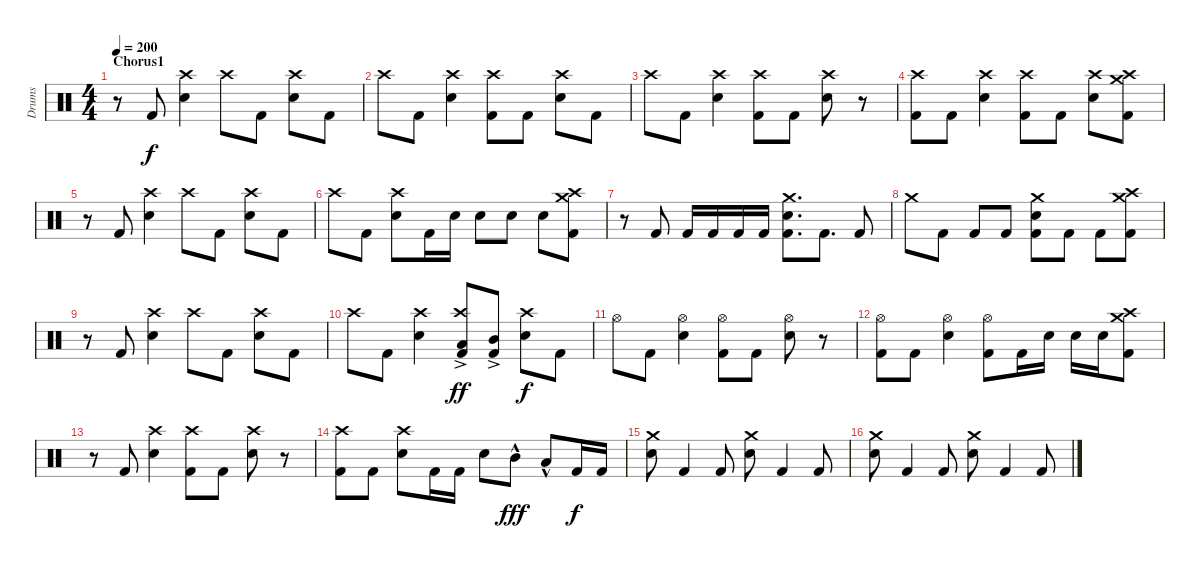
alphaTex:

\track ("Drums" "Drums") {instrument percussion}
\staff {score}
\articulation defaults
\ts (4 4)
\section ("" "Chorus1")
\tempo 200
\clef neutral
\ks c
r.8{dy f} "Kick (hit) 2".8 ("Crash high (hit)" "Electric Snare (hit)").4 "Crash high (hit)".8 "Kick (hit) 2".8 ("Crash high (hit)" "Electric Snare (hit)").8 "Kick (hit) 2".8 |
"Crash high (hit)".8 "Kick (hit) 2".8 ("Crash high (hit)" "Electric Snare (hit)").4 ("Crash high (hit)" "Kick (hit) 2").8 "Kick (hit) 2".8 ("Crash high (hit)" "Electric Snare (hit)").8 "Kick (hit) 2".8 |
"Crash high (hit)".8 "Kick (hit) 2".8 ("Crash high (hit)" "Electric Snare (hit)").4 ("Crash high (hit)" "Kick (hit) 2").8 "Kick (hit) 2".8 ("Crash high (hit)" "Electric Snare (hit)").8 r.8 |
("Crash high (hit)" "Kick (hit) 2").8 "Kick (hit) 2".8 ("Crash high (hit)" "Electric Snare (hit)").4 ("Crash high (hit)" "Kick (hit) 2").8 "Kick (hit) 2".8 ("Crash high (hit)" "Electric Snare (hit)").8 ("Crash high (hit)" "Crash medium (hit)" "Kick (hit) 2").8 |
r.8 "Kick (hit) 2".8 ("Crash high (hit)" "Electric Snare (hit)").4 "Crash high (hit)".8 "Kick (hit) 2".8 ("Crash high (hit)" "Electric Snare (hit)").8 "Kick (hit) 2".8 |
"Crash high (hit)".8 "Kick (hit) 2".8 ("Crash high (hit)" "Electric Snare (hit)").8 "Kick (hit) 2".16 "Electric Snare (hit)".16 "Electric Snare (hit)".8 "Electric Snare (hit)".8 "Electric Snare (hit)".8 ("Crash high (hit)" "Crash medium (hit)" "Kick (hit) 2").8 |
r.8 "Kick (hit) 2".8 "Kick (hit) 2".16 "Kick (hit) 2".16 "Kick (hit) 2".16 "Kick (hit) 2".16 ("Crash medium (hit)" "Electric Snare (hit)" "Kick (hit) 2").8{d} "Kick (hit) 2".8{d} "Kick (hit) 2".8 |
"Crash medium (hit)".8 "Kick (hit) 2".8 "Kick (hit) 2".8 "Kick (hit) 2".8 ("Crash medium (hit)" "Electric Snare (hit)" "Kick (hit) 2").8 "Kick (hit) 2".8 "Kick (hit) 2".8 ("Crash medium (hit)" "Crash high (hit)" "Kick (hit) 2").8 |
r.8 "Kick (hit) 2".8 ("Crash high (hit)" "Electric Snare (hit)").4 "Crash high (hit)".8 "Kick (hit) 2".8 ("Crash high (hit)" "Electric Snare (hit)").8 "Kick (hit) 2".8 |
"Crash high (hit)".8 "Kick (hit) 2".8 ("Crash high (hit)" "Electric Snare (hit)").4 ("Crash high (hit)" "Low Tom (hit)"{ac} "Kick (hit) 2").8{dy ff} ("Mid Tom (hit)"{ac} "Kick (hit) 2").8 ("Crash high (hit)" "Electric Snare (hit)").8{dy f} "Kick (hit) 2".8 |
"Hi-Hat (open)".8 "Kick (hit) 2".8 ("Hi-Hat (open)" "Electric Snare (hit)").4 ("Hi-Hat (open)" "Kick (hit) 2").8 "Kick (hit) 2".8 ("Hi-Hat (open)" "Electric Snare (hit)").8 r.8 |
("Hi-Hat (open)" "Kick (hit) 2").8 "Kick (hit) 2".8 ("Hi-Hat (open)" "Electric Snare (hit)").4 ("Hi-Hat (open)" "Kick (hit) 2").8 "Kick (hit) 2".16 "Electric Snare (hit)".16 "Electric Snare (hit)".16 "Electric Snare (hit)".16 ("Crash medium (hit)" "Crash high (hit)" "Kick (hit) 2").8 |
r.8 "Kick (hit) 2".8 ("Crash high (hit)" "Electric Snare (hit)").4 ("Crash high (hit)" "Kick (hit) 2").8 "Kick (hit) 2".8 ("Crash high (hit)" "Electric Snare (hit)").8 r.8 |
("Crash high (hit)" "Kick (hit) 2").8 "Kick (hit) 2".8 ("Crash high (hit)" "Electric Snare (hit)").8 "Kick (hit) 2".16 "Kick (hit) 2".16 "Electric Snare (hit)".8 "Mid Tom (hit)"{hac}.8{dy fff} "Low Tom (hit)"{hac}.8 "Kick (hit) 2".16{dy f} "Kick (hit) 2".16 |
("Crash medium (hit)" "Electric Snare (hit)").8 "Kick (hit) 2".4 "Kick (hit) 2".8 ("Crash medium (hit)" "Electric Snare (hit)").8 "Kick (hit) 2".4 "Kick (hit) 2".8 |
("Crash medium (hit)" "Electric Snare (hit)").8 "Kick (hit) 2".4 "Kick (hit) 2".8 ("Crash medium (hit)" "Electric Snare (hit)").8 "Kick (hit) 2".4 "Kick (hit) 2".8
